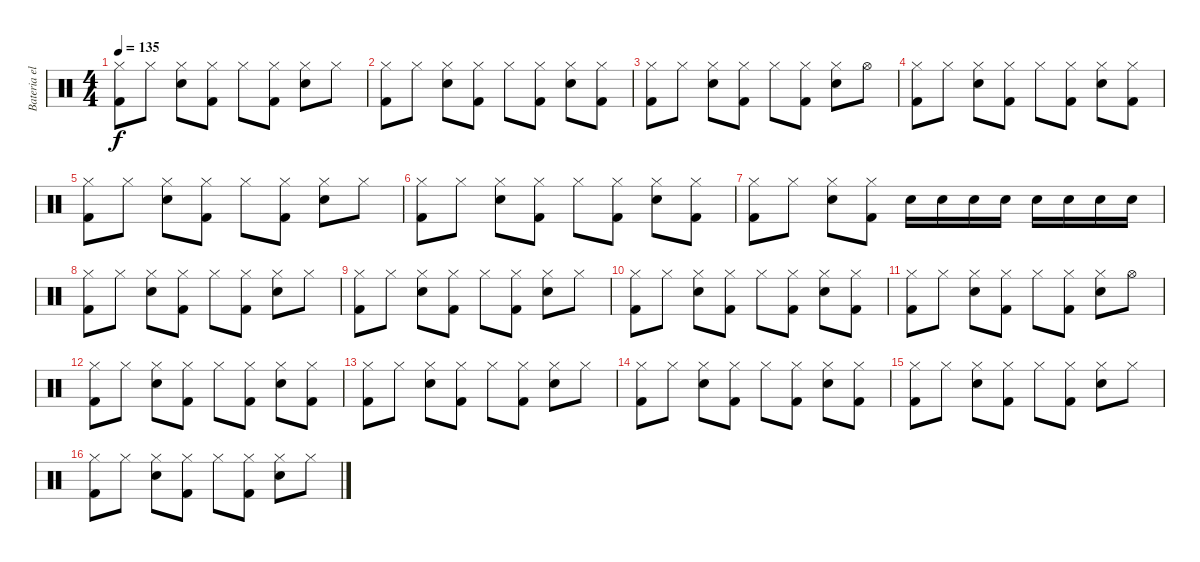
\track ("Bateria electrica" "Bateria el") {instrument percussion}
\staff {score}
\articulation defaults
\ts (4 4)
\tempo 135
\clef neutral
\ks c
("Hi-Hat (closed)" "Kick (hit) 2").8{dy f} "Hi-Hat (closed)".8 ("Hi-Hat (closed)" "Snare (hit) 2").8 ("Hi-Hat (closed)" "Kick (hit) 2").8 "Hi-Hat (closed)".8 ("Hi-Hat (closed)" "Kick (hit) 2").8 ("Hi-Hat (closed)" "Snare (hit) 2").8 "Hi-Hat (closed)".8 |
("Hi-Hat (closed)" "Kick (hit) 2").8 "Hi-Hat (closed)".8 ("Hi-Hat (closed)" "Snare (hit) 2").8 ("Hi-Hat (closed)" "Kick (hit) 2").8 "Hi-Hat (closed)".8 ("Hi-Hat (closed)" "Kick (hit) 2").8 ("Hi-Hat (closed)" "Snare (hit) 2").8 ("Hi-Hat (closed)" "Kick (hit) 2").8 |
("Hi-Hat (closed)" "Kick (hit) 2").8 "Hi-Hat (closed)".8 ("Hi-Hat (closed)" "Snare (hit) 2").8 ("Hi-Hat (closed)" "Kick (hit) 2").8 "Hi-Hat (closed)".8 ("Hi-Hat (closed)" "Kick (hit) 2").8 ("Hi-Hat (closed)" "Snare (hit) 2").8 "Hi-Hat (open)".8 |
("Hi-Hat (closed)" "Kick (hit) 2").8 "Hi-Hat (closed)".8 ("Hi-Hat (closed)" "Snare (hit) 2").8 ("Hi-Hat (closed)" "Kick (hit) 2").8 "Hi-Hat (closed)".8 ("Hi-Hat (closed)" "Kick (hit) 2").8 ("Hi-Hat (closed)" "Snare (hit) 2").8 ("Hi-Hat (closed)" "Kick (hit) 2").8 |
("Hi-Hat (closed)" "Kick (hit) 2").8 "Hi-Hat (closed)".8 ("Hi-Hat (closed)" "Snare (hit) 2").8 ("Hi-Hat (closed)" "Kick (hit) 2").8 "Hi-Hat (closed)".8 ("Hi-Hat (closed)" "Kick (hit) 2").8 ("Hi-Hat (closed)" "Snare (hit) 2").8 "Hi-Hat (closed)".8 |
("Hi-Hat (closed)" "Kick (hit) 2").8 "Hi-Hat (closed)".8 ("Hi-Hat (closed)" "Snare (hit) 2").8 ("Hi-Hat (closed)" "Kick (hit) 2").8 "Hi-Hat (closed)".8 ("Hi-Hat (closed)" "Kick (hit) 2").8 ("Hi-Hat (closed)" "Snare (hit) 2").8 ("Hi-Hat (closed)" "Kick (hit) 2").8 |
("Hi-Hat (closed)" "Kick (hit) 2").8 "Hi-Hat (closed)".8 ("Hi-Hat (closed)" "Snare (hit) 2").8 ("Hi-Hat (closed)" "Kick (hit) 2").8 "Snare (hit) 2".16 "Snare (hit) 2".16 "Snare (hit) 2".16 "Snare (hit) 2".16 "Snare (hit) 2".16 "Snare (hit) 2".16 "Snare (hit) 2".16 "Snare (hit) 2".16 |
("Hi-Hat (closed)" "Kick (hit) 2").8 "Hi-Hat (closed)".8 ("Hi-Hat (closed)" "Snare (hit) 2").8 ("Hi-Hat (closed)" "Kick (hit) 2").8 "Hi-Hat (closed)".8 ("Hi-Hat (closed)" "Kick (hit) 2").8 ("Hi-Hat (closed)" "Snare (hit) 2").8 "Hi-Hat (closed)".8 |
("Hi-Hat (closed)" "Kick (hit) 2").8 "Hi-Hat (closed)".8 ("Hi-Hat (closed)" "Snare (hit) 2").8 ("Hi-Hat (closed)" "Kick (hit) 2").8 "Hi-Hat (closed)".8 ("Hi-Hat (closed)" "Kick (hit) 2").8 ("Hi-Hat (closed)" "Snare (hit) 2").8 "Hi-Hat (closed)".8 |
("Hi-Hat (closed)" "Kick (hit) 2").8 "Hi-Hat (closed)".8 ("Hi-Hat (closed)" "Snare (hit) 2").8 ("Hi-Hat (closed)" "Kick (hit) 2").8 "Hi-Hat (closed)".8 ("Hi-Hat (closed)" "Kick (hit) 2").8 ("Hi-Hat (closed)" "Snare (hit) 2").8 ("Hi-Hat (closed)" "Kick (hit) 2").8 |
("Hi-Hat (closed)" "Kick (hit) 2").8 "Hi-Hat (closed)".8 ("Hi-Hat (closed)" "Snare (hit) 2").8 ("Hi-Hat (closed)" "Kick (hit) 2").8 "Hi-Hat (closed)".8 ("Hi-Hat (closed)" "Kick (hit) 2").8 ("Hi-Hat (closed)" "Snare (hit) 2").8 "Hi-Hat (open)".8 |
("Hi-Hat (closed)" "Kick (hit) 2").8 "Hi-Hat (closed)".8 ("Hi-Hat (closed)" "Snare (hit) 2").8 ("Hi-Hat (closed)" "Kick (hit) 2").8 "Hi-Hat (closed)".8 ("Hi-Hat (closed)" "Kick (hit) 2").8 ("Hi-Hat (closed)" "Snare (hit) 2").8 ("Hi-Hat (closed)" "Kick (hit) 2").8 |
("Hi-Hat (closed)" "Kick (hit) 2").8 "Hi-Hat (closed)".8 ("Hi-Hat (closed)" "Snare (hit) 2").8 ("Hi-Hat (closed)" "Kick (hit) 2").8 "Hi-Hat (closed)".8 ("Hi-Hat (closed)" "Kick (hit) 2").8 ("Hi-Hat (closed)" "Snare (hit) 2").8 "Hi-Hat (closed)".8 |
("Hi-Hat (closed)" "Kick (hit) 2").8 "Hi-Hat (closed)".8 ("Hi-Hat (closed)" "Snare (hit) 2").8 ("Hi-Hat (closed)" "Kick (hit) 2").8 "Hi-Hat (closed)".8 ("Hi-Hat (closed)" "Kick (hit) 2").8 ("Hi-Hat (closed)" "Snare (hit) 2").8 ("Hi-Hat (closed)" "Kick (hit) 2").8 |
("Hi-Hat (closed)" "Kick (hit) 2").8 "Hi-Hat (closed)".8 ("Hi-Hat (closed)" "Snare (hit) 2").8 ("Hi-Hat (closed)" "Kick (hit) 2").8 "Hi-Hat (closed)".8 ("Hi-Hat (closed)" "Kick (hit) 2").8 ("Hi-Hat (closed)" "Snare (hit) 2").8 "Hi-Hat (closed)".8 |
("Hi-Hat (closed)" "Kick (hit) 2").8 "Hi-Hat (closed)".8 ("Hi-Hat (closed)" "Snare (hit) 2").8 ("Hi-Hat (closed)" "Kick (hit) 2").8 "Hi-Hat (closed)".8 ("Hi-Hat (closed)" "Kick (hit) 2").8 ("Hi-Hat (closed)" "Snare (hit) 2").8 "Hi-Hat (closed)".8
